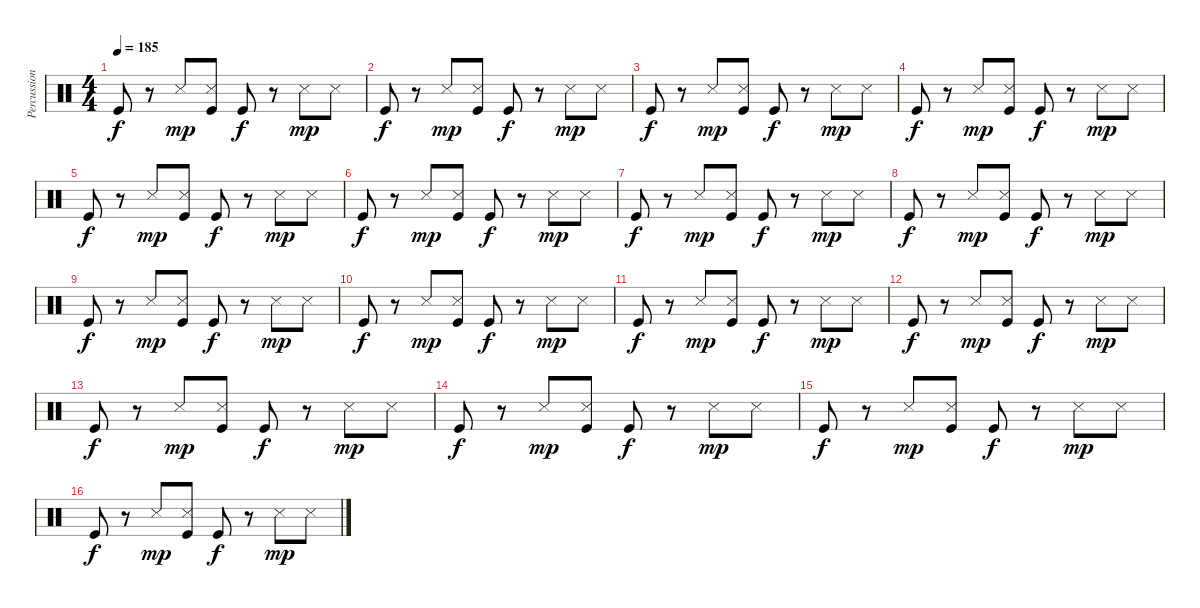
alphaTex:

\track ("Percussion" "Percussion") {instrument percussion}
\staff {score}
\articulation defaults
\ts (4 4)
\tempo 185
\clef neutral
\ks c "Kick (hit)".8{dy f}
r.8 "Metronome (hit)".8{dy mp} ("Metronome (hit)" "Kick (hit)").8 "Kick (hit)".8{dy f} r.8 "Snare (side stick) 3".8{dy mp} "Snare (side stick) 3".8 |
"Kick (hit)".8{dy f} r.8 "Metronome (hit)".8{dy mp} ("Metronome (hit)" "Kick (hit)").8 "Kick (hit)".8{dy f} r.8 "Snare (side stick) 3".8{dy mp} "Snare (side stick) 3".8 |
"Kick (hit)".8{dy f} r.8 "Metronome (hit)".8{dy mp} ("Metronome (hit)" "Kick (hit)").8 "Kick (hit)".8{dy f} r.8 "Snare (side stick) 3".8{dy mp} "Snare (side stick) 3".8 |
"Kick (hit)".8{dy f} r.8 "Metronome (hit)".8{dy mp} ("Metronome (hit)" "Kick (hit)").8 "Kick (hit)".8{dy f} r.8 "Snare (side stick) 3".8{dy mp} "Snare (side stick) 3".8 |
"Kick (hit)".8{dy f} r.8 "Metronome (hit)".8{dy mp} ("Metronome (hit)" "Kick (hit)").8 "Kick (hit)".8{dy f} r.8 "Snare (side stick) 3".8{dy mp} "Snare (side stick) 3".8 |
"Kick (hit)".8{dy f} r.8 "Metronome (hit)".8{dy mp} ("Metronome (hit)" "Kick (hit)").8 "Kick (hit)".8{dy f} r.8 "Snare (side stick) 3".8{dy mp} "Snare (side stick) 3".8 |
"Kick (hit)".8{dy f} r.8 "Metronome (hit)".8{dy mp} ("Metronome (hit)" "Kick (hit)").8 "Kick (hit)".8{dy f} r.8 "Snare (side stick) 3".8{dy mp} "Snare (side stick) 3".8 |
"Kick (hit)".8{dy f} r.8 "Metronome (hit)".8{dy mp} ("Metronome (hit)" "Kick (hit)").8 "Kick (hit)".8{dy f} r.8 "Snare (side stick) 3".8{dy mp} "Snare (side stick) 3".8 |
"Kick (hit)".8{dy f} r.8 "Metronome (hit)".8{dy mp} ("Metronome (hit)" "Kick (hit)").8 "Kick (hit)".8{dy f} r.8 "Snare (side stick) 3".8{dy mp} "Snare (side stick) 3".8 |
"Kick (hit)".8{dy f} r.8 "Metronome (hit)".8{dy mp} ("Metronome (hit)" "Kick (hit)").8 "Kick (hit)".8{dy f} r.8 "Snare (side stick) 3".8{dy mp} "Snare (side stick) 3".8 |
"Kick (hit)".8{dy f} r.8 "Metronome (hit)".8{dy mp} ("Metronome (hit)" "Kick (hit)").8 "Kick (hit)".8{dy f} r.8 "Snare (side stick) 3".8{dy mp} "Snare (side stick) 3".8 |
"Kick (hit)".8{dy f} r.8 "Metronome (hit)".8{dy mp} ("Metronome (hit)" "Kick (hit)").8 "Kick (hit)".8{dy f} r.8 "Snare (side stick) 3".8{dy mp} "Snare (side stick) 3".8 |
"Kick (hit)".8{dy f} r.8 "Metronome (hit)".8{dy mp} ("Metronome (hit)" "Kick (hit)").8 "Kick (hit)".8{dy f} r.8 "Snare (side stick) 3".8{dy mp} "Snare (side stick) 3".8 |
"Kick (hit)".8{dy f} r.8 "Metronome (hit)".8{dy mp} ("Metronome (hit)" "Kick (hit)").8 "Kick (hit)".8{dy f} r.8 "Snare (side stick) 3".8{dy mp} "Snare (side stick) 3".8 |
"Kick (hit)".8{dy f} r.8 "Metronome (hit)".8{dy mp} ("Metronome (hit)" "Kick (hit)").8 "Kick (hit)".8{dy f} r.8 "Snare (side stick) 3".8{dy mp} "Snare (side stick) 3".8 |
"Kick (hit)".8{dy f} r.8 "Metronome (hit)".8{dy mp} ("Metronome (hit)" "Kick (hit)").8 "Kick (hit)".8{dy f} r.8 "Snare (side stick) 3".8{dy mp} "Snare (side stick) 3".8
